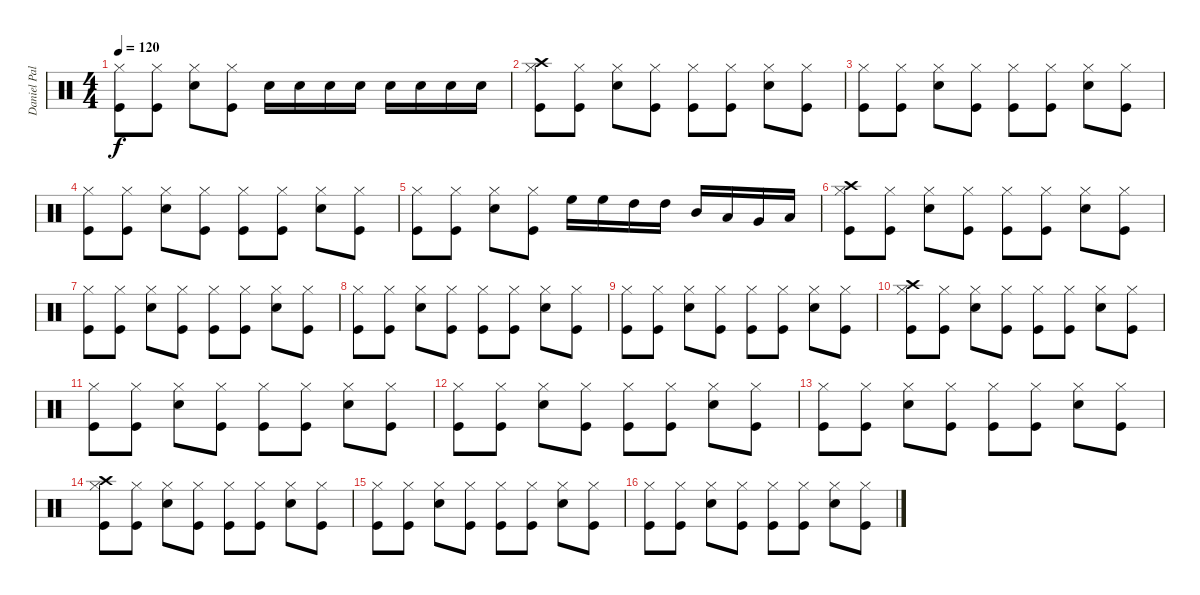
\track ("Daniel Pal" "Daniel Pal") {instrument percussion}
\staff {score}
\articulation defaults
\ts (4 4)
\tempo 120
\clef neutral
\ks c
("Hi-Hat (closed)" "Kick (hit)").8{dy f} ("Hi-Hat (closed)" "Kick (hit)").8 ("Hi-Hat (closed)" "Electric Snare (hit)").8 ("Hi-Hat (closed)" "Kick (hit)").8 "Electric Snare (hit)".16 "Electric Snare (hit)".16 "Electric Snare (hit)".16 "Electric Snare (hit)".16 "Electric Snare (hit)".16 "Electric Snare (hit)".16 "Electric Snare (hit)".16 "Electric Snare (hit)".16 |
("Crash high (hit)" "Hi-Hat (closed)" "Kick (hit)").8 ("Hi-Hat (closed)" "Kick (hit)").8 ("Hi-Hat (closed)" "Electric Snare (hit)").8 ("Hi-Hat (closed)" "Kick (hit)").8 ("Hi-Hat (closed)" "Kick (hit)").8 ("Hi-Hat (closed)" "Kick (hit)").8 ("Hi-Hat (closed)" "Electric Snare (hit)").8 ("Hi-Hat (closed)" "Kick (hit)").8 |
("Hi-Hat (closed)" "Kick (hit)").8 ("Hi-Hat (closed)" "Kick (hit)").8 ("Hi-Hat (closed)" "Electric Snare (hit)").8 ("Hi-Hat (closed)" "Kick (hit)").8 ("Hi-Hat (closed)" "Kick (hit)").8 ("Hi-Hat (closed)" "Kick (hit)").8 ("Hi-Hat (closed)" "Electric Snare (hit)").8 ("Hi-Hat (closed)" "Kick (hit)").8 |
("Hi-Hat (closed)" "Kick (hit)").8 ("Hi-Hat (closed)" "Kick (hit)").8 ("Hi-Hat (closed)" "Electric Snare (hit)").8 ("Hi-Hat (closed)" "Kick (hit)").8 ("Hi-Hat (closed)" "Kick (hit)").8 ("Hi-Hat (closed)" "Kick (hit)").8 ("Hi-Hat (closed)" "Electric Snare (hit)").8 ("Hi-Hat (closed)" "Kick (hit)").8 |
("Hi-Hat (closed)" "Kick (hit)").8 ("Hi-Hat (closed)" "Kick (hit)").8 ("Hi-Hat (closed)" "Electric Snare (hit)").8 ("Hi-Hat (closed)" "Kick (hit)").8 "High Floor Tom (hit)".16 "High Floor Tom (hit)".16 "High Tom (hit)".16 "High Tom (hit)".16 "Mid Tom (hit)".16 "Low Tom (hit)".16 "Very Low Tom (hit)".16 "Low Floor Tom (hit)".16 |
("Crash high (hit)" "Hi-Hat (closed)" "Kick (hit)").8 ("Hi-Hat (closed)" "Kick (hit)").8 ("Hi-Hat (closed)" "Electric Snare (hit)").8 ("Hi-Hat (closed)" "Kick (hit)").8 ("Hi-Hat (closed)" "Kick (hit)").8 ("Hi-Hat (closed)" "Kick (hit)").8 ("Hi-Hat (closed)" "Electric Snare (hit)").8 ("Hi-Hat (closed)" "Kick (hit)").8 |
("Hi-Hat (closed)" "Kick (hit)").8 ("Hi-Hat (closed)" "Kick (hit)").8 ("Hi-Hat (closed)" "Electric Snare (hit)").8 ("Hi-Hat (closed)" "Kick (hit)").8 ("Hi-Hat (closed)" "Kick (hit)").8 ("Hi-Hat (closed)" "Kick (hit)").8 ("Hi-Hat (closed)" "Electric Snare (hit)").8 ("Hi-Hat (closed)" "Kick (hit)").8 |
("Hi-Hat (closed)" "Kick (hit)").8 ("Hi-Hat (closed)" "Kick (hit)").8 ("Hi-Hat (closed)" "Electric Snare (hit)").8 ("Hi-Hat (closed)" "Kick (hit)").8 ("Hi-Hat (closed)" "Kick (hit)").8 ("Hi-Hat (closed)" "Kick (hit)").8 ("Hi-Hat (closed)" "Electric Snare (hit)").8 ("Hi-Hat (closed)" "Kick (hit)").8 |
("Hi-Hat (closed)" "Kick (hit)").8 ("Hi-Hat (closed)" "Kick (hit)").8 ("Hi-Hat (closed)" "Electric Snare (hit)").8 ("Hi-Hat (closed)" "Kick (hit)").8 ("Hi-Hat (closed)" "Kick (hit)").8 ("Hi-Hat (closed)" "Kick (hit)").8 ("Hi-Hat (closed)" "Electric Snare (hit)").8 ("Hi-Hat (closed)" "Kick (hit)").8 |
("Crash high (hit)" "Hi-Hat (closed)" "Kick (hit)").8 ("Hi-Hat (closed)" "Kick (hit)").8 ("Hi-Hat (closed)" "Electric Snare (hit)").8 ("Hi-Hat (closed)" "Kick (hit)").8 ("Hi-Hat (closed)" "Kick (hit)").8 ("Hi-Hat (closed)" "Kick (hit)").8 ("Hi-Hat (closed)" "Electric Snare (hit)").8 ("Hi-Hat (closed)" "Kick (hit)").8 |
("Hi-Hat (closed)" "Kick (hit)").8 ("Hi-Hat (closed)" "Kick (hit)").8 ("Hi-Hat (closed)" "Electric Snare (hit)").8 ("Hi-Hat (closed)" "Kick (hit)").8 ("Hi-Hat (closed)" "Kick (hit)").8 ("Hi-Hat (closed)" "Kick (hit)").8 ("Hi-Hat (closed)" "Electric Snare (hit)").8 ("Hi-Hat (closed)" "Kick (hit)").8 |
("Hi-Hat (closed)" "Kick (hit)").8 ("Hi-Hat (closed)" "Kick (hit)").8 ("Hi-Hat (closed)" "Electric Snare (hit)").8 ("Hi-Hat (closed)" "Kick (hit)").8 ("Hi-Hat (closed)" "Kick (hit)").8 ("Hi-Hat (closed)" "Kick (hit)").8 ("Hi-Hat (closed)" "Electric Snare (hit)").8 ("Hi-Hat (closed)" "Kick (hit)").8 |
("Hi-Hat (closed)" "Kick (hit)").8 ("Hi-Hat (closed)" "Kick (hit)").8 ("Hi-Hat (closed)" "Electric Snare (hit)").8 ("Hi-Hat (closed)" "Kick (hit)").8 ("Hi-Hat (closed)" "Kick (hit)").8 ("Hi-Hat (closed)" "Kick (hit)").8 ("Hi-Hat (closed)" "Electric Snare (hit)").8 ("Hi-Hat (closed)" "Kick (hit)").8 |
("Crash high (hit)" "Hi-Hat (closed)" "Kick (hit)").8 ("Hi-Hat (closed)" "Kick (hit)").8 ("Hi-Hat (closed)" "Electric Snare (hit)").8 ("Hi-Hat (closed)" "Kick (hit)").8 ("Hi-Hat (closed)" "Kick (hit)").8 ("Hi-Hat (closed)" "Kick (hit)").8 ("Hi-Hat (closed)" "Electric Snare (hit)").8 ("Hi-Hat (closed)" "Kick (hit)").8 |
("Hi-Hat (closed)" "Kick (hit)").8 ("Hi-Hat (closed)" "Kick (hit)").8 ("Hi-Hat (closed)" "Electric Snare (hit)").8 ("Hi-Hat (closed)" "Kick (hit)").8 ("Hi-Hat (closed)" "Kick (hit)").8 ("Hi-Hat (closed)" "Kick (hit)").8 ("Hi-Hat (closed)" "Electric Snare (hit)").8 ("Hi-Hat (closed)" "Kick (hit)").8 |
("Hi-Hat (closed)" "Kick (hit)").8 ("Hi-Hat (closed)" "Kick (hit)").8 ("Hi-Hat (closed)" "Electric Snare (hit)").8 ("Hi-Hat (closed)" "Kick (hit)").8 ("Hi-Hat (closed)" "Kick (hit)").8 ("Hi-Hat (closed)" "Kick (hit)").8 ("Hi-Hat (closed)" "Electric Snare (hit)").8 ("Hi-Hat (closed)" "Kick (hit)").8
